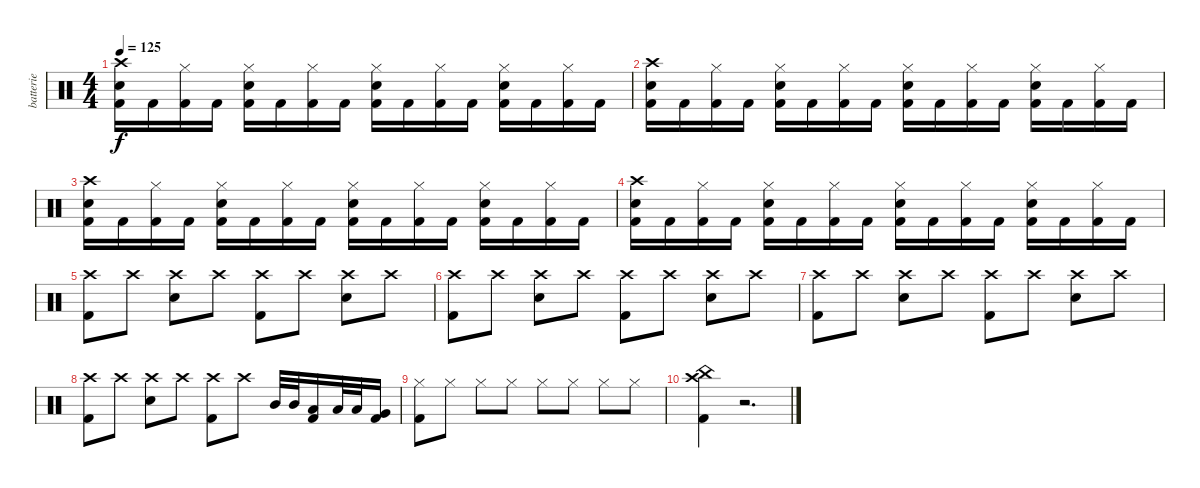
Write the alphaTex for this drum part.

\track ("batterie" "batterie") {instrument percussion}
\staff {score}
\articulation defaults
\ts (4 4)
\tempo 125
\clef neutral
\ks c
("Crash high (hit)" "Electric Snare (hit)" "Kick (hit) 2").16{dy f} "Kick (hit) 2".16 ("Kick (hit) 2" "Hi-Hat (closed)").16 "Kick (hit) 2".16 ("Electric Snare (hit)" "Kick (hit) 2" "Hi-Hat (closed)").16 "Kick (hit) 2".16 ("Kick (hit) 2" "Hi-Hat (closed)").16 "Kick (hit) 2".16 ("Electric Snare (hit)" "Kick (hit) 2" "Hi-Hat (closed)").16 "Kick (hit) 2".16 ("Kick (hit) 2" "Hi-Hat (closed)").16 "Kick (hit) 2".16 ("Electric Snare (hit)" "Kick (hit) 2" "Hi-Hat (closed)").16 "Kick (hit) 2".16 ("Kick (hit) 2" "Hi-Hat (closed)").16 "Kick (hit) 2".16 |
("Crash high (hit)" "Electric Snare (hit)" "Kick (hit) 2").16 "Kick (hit) 2".16 ("Kick (hit) 2" "Hi-Hat (closed)").16 "Kick (hit) 2".16 ("Electric Snare (hit)" "Kick (hit) 2" "Hi-Hat (closed)").16 "Kick (hit) 2".16 ("Kick (hit) 2" "Hi-Hat (closed)").16 "Kick (hit) 2".16 ("Electric Snare (hit)" "Kick (hit) 2" "Hi-Hat (closed)").16 "Kick (hit) 2".16 ("Kick (hit) 2" "Hi-Hat (closed)").16 "Kick (hit) 2".16 ("Electric Snare (hit)" "Kick (hit) 2" "Hi-Hat (closed)").16 "Kick (hit) 2".16 ("Kick (hit) 2" "Hi-Hat (closed)").16 "Kick (hit) 2".16 |
("Crash high (hit)" "Electric Snare (hit)" "Kick (hit) 2").16 "Kick (hit) 2".16 ("Kick (hit) 2" "Hi-Hat (closed)").16 "Kick (hit) 2".16 ("Electric Snare (hit)" "Kick (hit) 2" "Hi-Hat (closed)").16 "Kick (hit) 2".16 ("Kick (hit) 2" "Hi-Hat (closed)").16 "Kick (hit) 2".16 ("Electric Snare (hit)" "Kick (hit) 2" "Hi-Hat (closed)").16 "Kick (hit) 2".16 ("Kick (hit) 2" "Hi-Hat (closed)").16 "Kick (hit) 2".16 ("Electric Snare (hit)" "Kick (hit) 2" "Hi-Hat (closed)").16 "Kick (hit) 2".16 ("Kick (hit) 2" "Hi-Hat (closed)").16 "Kick (hit) 2".16 |
("Crash high (hit)" "Electric Snare (hit)" "Kick (hit) 2").16 "Kick (hit) 2".16 ("Kick (hit) 2" "Hi-Hat (closed)").16 "Kick (hit) 2".16 ("Electric Snare (hit)" "Kick (hit) 2" "Hi-Hat (closed)").16 "Kick (hit) 2".16 ("Kick (hit) 2" "Hi-Hat (closed)").16 "Kick (hit) 2".16 ("Electric Snare (hit)" "Kick (hit) 2" "Hi-Hat (closed)").16 "Kick (hit) 2".16 ("Kick (hit) 2" "Hi-Hat (closed)").16 "Kick (hit) 2".16 ("Electric Snare (hit)" "Kick (hit) 2" "Hi-Hat (closed)").16 "Kick (hit) 2".16 ("Kick (hit) 2" "Hi-Hat (closed)").16 "Kick (hit) 2".16 |
("Kick (hit) 2" "Crash high (hit)").8 "Crash high (hit)".8 ("Electric Snare (hit)" "Crash high (hit)").8 "Crash high (hit)".8 ("Kick (hit) 2" "Crash high (hit)").8 "Crash high (hit)".8 ("Electric Snare (hit)" "Crash high (hit)").8 "Crash high (hit)".8 |
("Kick (hit) 2" "Crash high (hit)").8 "Crash high (hit)".8 ("Electric Snare (hit)" "Crash high (hit)").8 "Crash high (hit)".8 ("Kick (hit) 2" "Crash high (hit)").8 "Crash high (hit)".8 ("Electric Snare (hit)" "Crash high (hit)").8 "Crash high (hit)".8 |
("Kick (hit) 2" "Crash high (hit)").8 "Crash high (hit)".8 ("Electric Snare (hit)" "Crash high (hit)").8 "Crash high (hit)".8 ("Kick (hit) 2" "Crash high (hit)").8 "Crash high (hit)".8 ("Electric Snare (hit)" "Crash high (hit)").8 "Crash high (hit)".8 |
("Kick (hit) 2" "Crash high (hit)").8 "Crash high (hit)".8 ("Electric Snare (hit)" "Crash high (hit)").8 "Crash high (hit)".8 ("Kick (hit) 2" "Crash high (hit)").8 "Crash high (hit)".8 "Mid Tom (hit)".32 "Mid Tom (hit)".32 ("Low Tom (hit)" "Kick (hit) 2").16 "Low Tom (hit)".32 "Low Tom (hit)".32 ("Very Low Tom (hit)" "Kick (hit) 2").16 |
("Kick (hit) 2" "Hi-Hat (closed)").8 "Hi-Hat (closed)".8 "Hi-Hat (closed)".8 "Hi-Hat (closed)".8 "Hi-Hat (closed)".8 "Hi-Hat (closed)".8 "Hi-Hat (closed)".8 "Hi-Hat (closed)".8 |
("Crash high (hit)" "China (hit)" "Kick (hit) 2").4 r.2{d}
